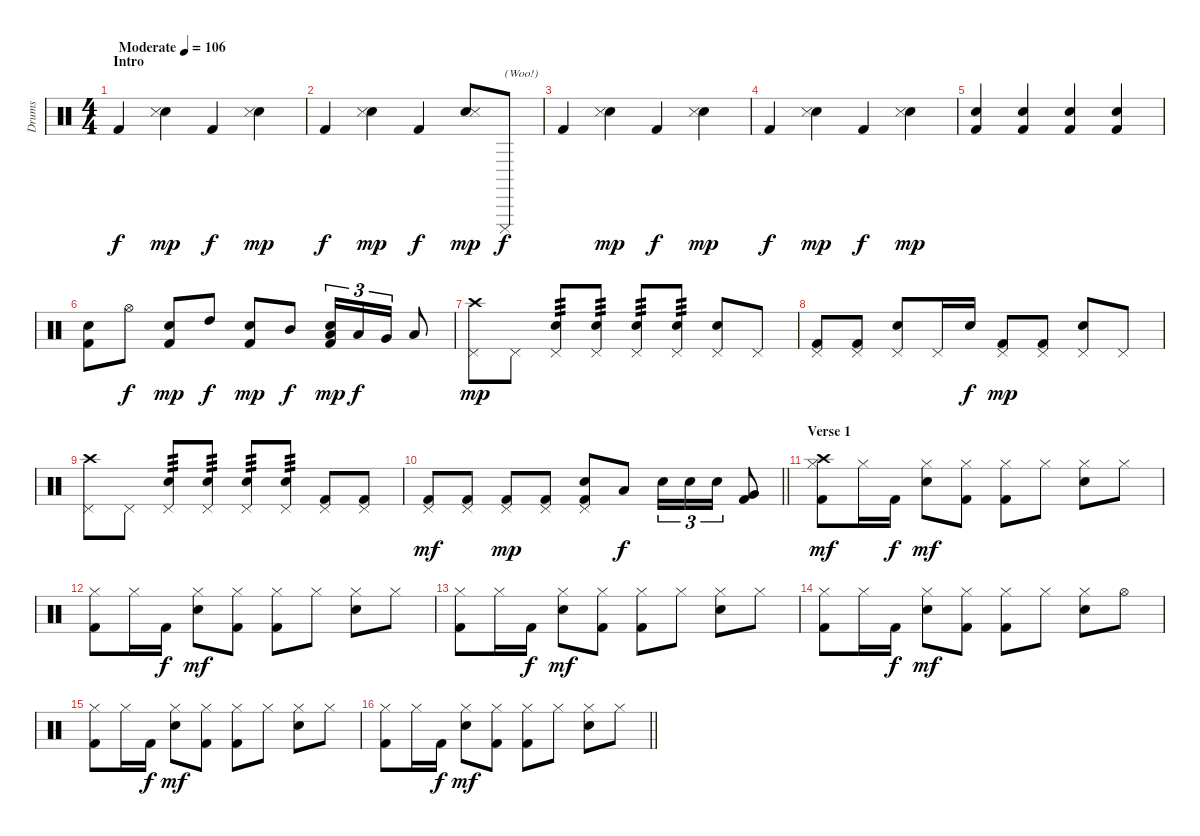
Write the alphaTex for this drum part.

\track ("Drums" "Drums") {instrument percussion}
\staff {score}
\articulation defaults
\ts (4 4)
\section ("" "Intro")
\tempo (106 "Moderate")
\clef neutral
\ks c "Kick (hit) 2".4{dy f volume 13}
("Hand Clap (hit)" "Snare (side stick) 3").4{dy mp} "Kick (hit) 2".4{dy f} ("Hand Clap (hit)" "Snare (side stick) 3").4{dy mp} |
"Kick (hit) 2".4{dy f} ("Hand Clap (hit)" "Snare (side stick) 3").4{dy mp} "Kick (hit) 2".4{dy f} ("Hand Clap (hit)" "Snare (side stick) 3").8{dy mp} "Cuica (mute)".8{txt "(Woo!)" dy f} |
"Kick (hit) 2".4 ("Hand Clap (hit)" "Snare (side stick) 3").4{dy mp} "Kick (hit) 2".4{dy f} ("Hand Clap (hit)" "Snare (side stick) 3").4{dy mp} |
"Kick (hit) 2".4{dy f} ("Hand Clap (hit)" "Snare (side stick) 3").4{dy mp} "Kick (hit) 2".4{dy f} ("Hand Clap (hit)" "Snare (side stick) 3").4{dy mp} |
("Hand Clap (hit)" "Kick (hit) 2").4 ("Hand Clap (hit)" "Kick (hit) 2").4 ("Hand Clap (hit)" "Kick (hit) 2").4 ("Hand Clap (hit)" "Kick (hit) 2").4 |
("Hand Clap (hit)" "Kick (hit) 2").8 "Hi-Hat (open)".8{dy f} ("Hand Clap (hit)" "Kick (hit) 2").8{dy mp} "High Tom (hit)".8{dy f} ("Hand Clap (hit)" "Kick (hit) 2").8{dy mp} "Mid Tom (hit)".8{dy f} ("Hand Clap (hit)" "Low Tom (hit)" "Kick (hit) 2").16{tu (3 2) dy mp} "Low Tom (hit)".16{tu (3 2) dy f} "Very Low Tom (hit)".16{tu (3 2)} "Low Floor Tom (hit)".8 |
("Crash high (hit)" "Pedal Hi-Hat (hit)").8{dy mp} "Pedal Hi-Hat (hit)".8 ("Snare (hit) 2" "Pedal Hi-Hat (hit)").8{tp 3} ("Snare (hit) 2" "Pedal Hi-Hat (hit)").8{tp 3} ("Snare (hit) 2" "Pedal Hi-Hat (hit)").8{tp 3} ("Snare (hit) 2" "Pedal Hi-Hat (hit)").8{tp 3} ("Snare (hit) 2" "Pedal Hi-Hat (hit)").8 "Pedal Hi-Hat (hit)".8 |
("Pedal Hi-Hat (hit)" "Kick (hit) 2").8 ("Pedal Hi-Hat (hit)" "Kick (hit) 2").8 ("Snare (hit) 2" "Pedal Hi-Hat (hit)").8 "Pedal Hi-Hat (hit)".16 "Snare (hit) 2".16{dy f} ("Pedal Hi-Hat (hit)" "Kick (hit) 2").8{dy mp} ("Pedal Hi-Hat (hit)" "Kick (hit) 2").8 ("Snare (hit) 2" "Pedal Hi-Hat (hit)").8 "Pedal Hi-Hat (hit)".8 |
("Crash high (hit)" "Pedal Hi-Hat (hit)").8 "Pedal Hi-Hat (hit)".8 ("Snare (hit) 2" "Pedal Hi-Hat (hit)").8{tp 3} ("Snare (hit) 2" "Pedal Hi-Hat (hit)").8{tp 3} ("Snare (hit) 2" "Pedal Hi-Hat (hit)").8{tp 3} ("Snare (hit) 2" "Pedal Hi-Hat (hit)").8{tp 3} ("Pedal Hi-Hat (hit)" "Kick (hit) 2").8 ("Pedal Hi-Hat (hit)" "Kick (hit) 2").8 |
\barLineRight lightlight
("Pedal Hi-Hat (hit)" "Kick (hit) 2").8{dy mf} ("Pedal Hi-Hat (hit)" "Kick (hit) 2").8 ("Pedal Hi-Hat (hit)" "Kick (hit) 2").8{dy mp} ("Pedal Hi-Hat (hit)" "Kick (hit) 2").8 ("Snare (hit) 2" "Pedal Hi-Hat (hit)" "Kick (hit) 2").8 "Low Tom (hit)".8{dy f} "Snare (hit) 2".16{tu (3 2)} "Snare (hit) 2".16{tu (3 2)} "Electric Snare (hit)".16{tu (3 2)} ("Very Low Tom (hit)" "Kick (hit) 2").8 |
\section ("" "Verse 1")
("Crash high (hit)" "Hi-Hat (closed)" "Kick (hit) 2").8{dy mf} "Hi-Hat (closed)".16 "Kick (hit) 2".16{dy f} ("Hi-Hat (closed)" "Snare (hit) 2").8{dy mf} ("Hi-Hat (closed)" "Kick (hit) 2").8 ("Hi-Hat (closed)" "Kick (hit) 2").8 "Hi-Hat (closed)".8 ("Hi-Hat (closed)" "Snare (hit) 2").8 "Hi-Hat (closed)".8 |
("Hi-Hat (closed)" "Kick (hit) 2").8 "Hi-Hat (closed)".16 "Kick (hit) 2".16{dy f} ("Hi-Hat (closed)" "Snare (hit) 2").8{dy mf} ("Hi-Hat (closed)" "Kick (hit) 2").8 ("Hi-Hat (closed)" "Kick (hit) 2").8 "Hi-Hat (closed)".8 ("Hi-Hat (closed)" "Snare (hit) 2").8 "Hi-Hat (closed)".8 |
("Hi-Hat (closed)" "Kick (hit) 2").8 "Hi-Hat (closed)".16 "Kick (hit) 2".16{dy f} ("Hi-Hat (closed)" "Snare (hit) 2").8{dy mf} ("Hi-Hat (closed)" "Kick (hit) 2").8 ("Hi-Hat (closed)" "Kick (hit) 2").8 "Hi-Hat (closed)".8 ("Hi-Hat (closed)" "Snare (hit) 2").8 "Hi-Hat (closed)".8 |
("Hi-Hat (closed)" "Kick (hit) 2").8 "Hi-Hat (closed)".16 "Kick (hit) 2".16{dy f} ("Hi-Hat (closed)" "Snare (hit) 2").8{dy mf} ("Hi-Hat (closed)" "Kick (hit) 2").8 ("Hi-Hat (closed)" "Kick (hit) 2").8 "Hi-Hat (closed)".8 ("Hi-Hat (closed)" "Snare (hit) 2").8 "Hi-Hat (open)".8 |
("Hi-Hat (closed)" "Kick (hit) 2").8 "Hi-Hat (closed)".16 "Kick (hit) 2".16{dy f} ("Hi-Hat (closed)" "Snare (hit) 2").8{dy mf} ("Hi-Hat (closed)" "Kick (hit) 2").8 ("Hi-Hat (closed)" "Kick (hit) 2").8 "Hi-Hat (closed)".8 ("Hi-Hat (closed)" "Snare (hit) 2").8 "Hi-Hat (closed)".8 |
\barLineRight lightlight
("Hi-Hat (closed)" "Kick (hit) 2").8 "Hi-Hat (closed)".16 "Kick (hit) 2".16{dy f} ("Hi-Hat (closed)" "Snare (hit) 2").8{dy mf} ("Hi-Hat (closed)" "Kick (hit) 2").8 ("Hi-Hat (closed)" "Kick (hit) 2").8 "Hi-Hat (closed)".8 ("Hi-Hat (closed)" "Snare (hit) 2").8 "Hi-Hat (closed)".8
